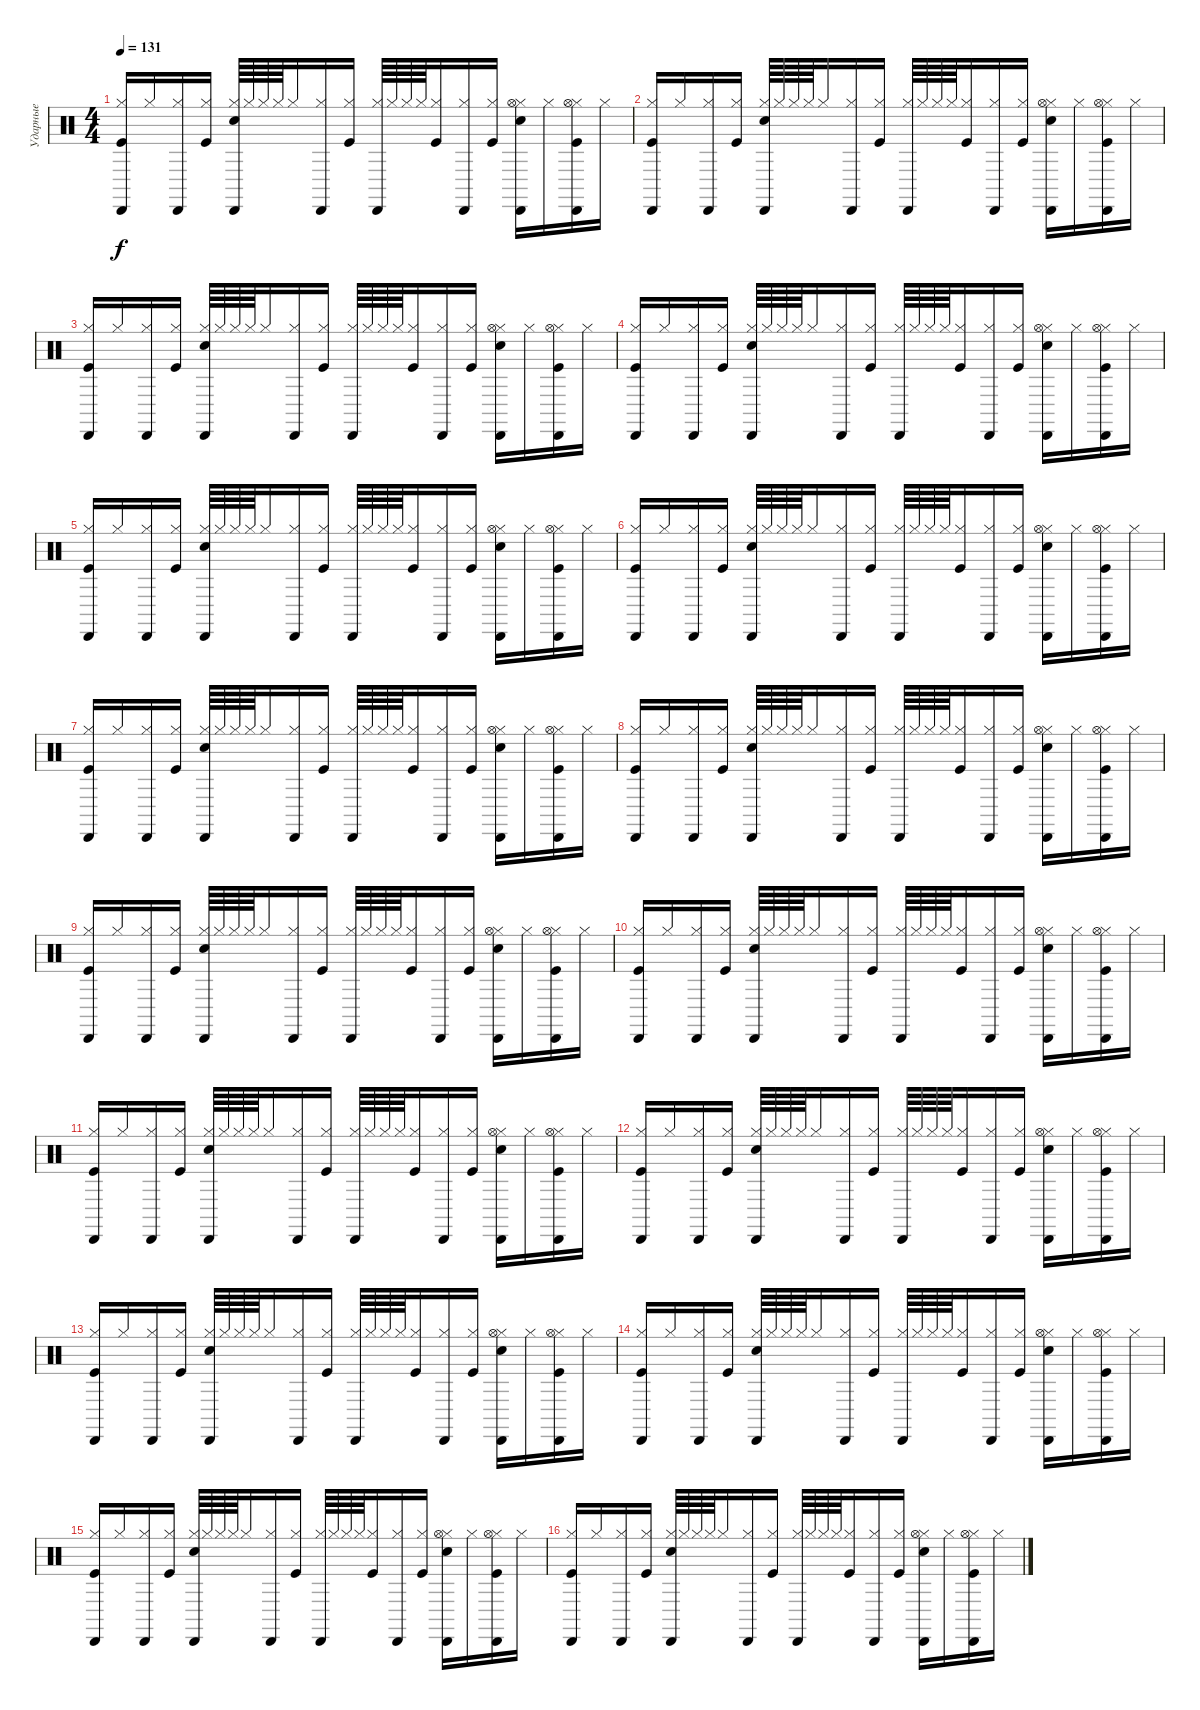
\track ("Ударные" "Ударные") {instrument percussion}
\staff {score}
\articulation defaults
\ts (4 4)
\tempo 131
\clef neutral
\ks c
("Hi-Hat (closed)" "Kick (hit)" "Cabasa (hit)").16{dy f} "Hi-Hat (closed)".16 ("Hi-Hat (closed)" "Cabasa (hit)").16 ("Hi-Hat (closed)" "Kick (hit)").16 ("Hi-Hat (closed)" "Snare (hit) 2" "Cabasa (hit)").64 "Hi-Hat (closed)".64 "Hi-Hat (closed)".64 "Hi-Hat (closed)".64 "Hi-Hat (closed)".16 ("Hi-Hat (closed)" "Cabasa (hit)").16 ("Hi-Hat (closed)" "Kick (hit)").16 ("Hi-Hat (closed)" "Cabasa (hit)").64 "Hi-Hat (closed)".64 "Hi-Hat (closed)".64 "Hi-Hat (closed)".64 ("Hi-Hat (closed)" "Kick (hit)").16 ("Hi-Hat (closed)" "Cabasa (hit)").16 ("Hi-Hat (closed)" "Kick (hit)").16 ("Hi-Hat (closed)" "Hi-Hat (open)" "Snare (hit) 2" "Cabasa (hit)").16 "Hi-Hat (closed)".16 ("Hi-Hat (closed)" "Hi-Hat (open)" "Kick (hit)" "Cabasa (hit)").16 "Hi-Hat (closed)".16 |
("Hi-Hat (closed)" "Kick (hit)" "Cabasa (hit)").16 "Hi-Hat (closed)".16 ("Hi-Hat (closed)" "Cabasa (hit)").16 ("Hi-Hat (closed)" "Kick (hit)").16 ("Hi-Hat (closed)" "Snare (hit) 2" "Cabasa (hit)").64 "Hi-Hat (closed)".64 "Hi-Hat (closed)".64 "Hi-Hat (closed)".64 "Hi-Hat (closed)".16 ("Hi-Hat (closed)" "Cabasa (hit)").16 ("Hi-Hat (closed)" "Kick (hit)").16 ("Hi-Hat (closed)" "Cabasa (hit)").64 "Hi-Hat (closed)".64 "Hi-Hat (closed)".64 "Hi-Hat (closed)".64 ("Hi-Hat (closed)" "Kick (hit)").16 ("Hi-Hat (closed)" "Cabasa (hit)").16 ("Hi-Hat (closed)" "Kick (hit)").16 ("Hi-Hat (closed)" "Hi-Hat (open)" "Snare (hit) 2" "Cabasa (hit)").16 "Hi-Hat (closed)".16 ("Hi-Hat (closed)" "Hi-Hat (open)" "Kick (hit)" "Cabasa (hit)").16 "Hi-Hat (closed)".16 |
("Hi-Hat (closed)" "Kick (hit)" "Cabasa (hit)").16 "Hi-Hat (closed)".16 ("Hi-Hat (closed)" "Cabasa (hit)").16 ("Hi-Hat (closed)" "Kick (hit)").16 ("Hi-Hat (closed)" "Snare (hit) 2" "Cabasa (hit)").64 "Hi-Hat (closed)".64 "Hi-Hat (closed)".64 "Hi-Hat (closed)".64 "Hi-Hat (closed)".16 ("Hi-Hat (closed)" "Cabasa (hit)").16 ("Hi-Hat (closed)" "Kick (hit)").16 ("Hi-Hat (closed)" "Cabasa (hit)").64 "Hi-Hat (closed)".64 "Hi-Hat (closed)".64 "Hi-Hat (closed)".64 ("Hi-Hat (closed)" "Kick (hit)").16 ("Hi-Hat (closed)" "Cabasa (hit)").16 ("Hi-Hat (closed)" "Kick (hit)").16 ("Hi-Hat (closed)" "Hi-Hat (open)" "Snare (hit) 2" "Cabasa (hit)").16 "Hi-Hat (closed)".16 ("Hi-Hat (closed)" "Hi-Hat (open)" "Kick (hit)" "Cabasa (hit)").16 "Hi-Hat (closed)".16 |
("Hi-Hat (closed)" "Kick (hit)" "Cabasa (hit)").16 "Hi-Hat (closed)".16 ("Hi-Hat (closed)" "Cabasa (hit)").16 ("Hi-Hat (closed)" "Kick (hit)").16 ("Hi-Hat (closed)" "Snare (hit) 2" "Cabasa (hit)").64 "Hi-Hat (closed)".64 "Hi-Hat (closed)".64 "Hi-Hat (closed)".64 "Hi-Hat (closed)".16 ("Hi-Hat (closed)" "Cabasa (hit)").16 ("Hi-Hat (closed)" "Kick (hit)").16 ("Hi-Hat (closed)" "Cabasa (hit)").64 "Hi-Hat (closed)".64 "Hi-Hat (closed)".64 "Hi-Hat (closed)".64 ("Hi-Hat (closed)" "Kick (hit)").16 ("Hi-Hat (closed)" "Cabasa (hit)").16 ("Hi-Hat (closed)" "Kick (hit)").16 ("Hi-Hat (closed)" "Hi-Hat (open)" "Snare (hit) 2" "Cabasa (hit)").16 "Hi-Hat (closed)".16 ("Hi-Hat (closed)" "Hi-Hat (open)" "Kick (hit)" "Cabasa (hit)").16 "Hi-Hat (closed)".16 |
("Hi-Hat (closed)" "Kick (hit)" "Cabasa (hit)").16 "Hi-Hat (closed)".16 ("Hi-Hat (closed)" "Cabasa (hit)").16 ("Hi-Hat (closed)" "Kick (hit)").16 ("Hi-Hat (closed)" "Snare (hit) 2" "Cabasa (hit)").64 "Hi-Hat (closed)".64 "Hi-Hat (closed)".64 "Hi-Hat (closed)".64 "Hi-Hat (closed)".16 ("Hi-Hat (closed)" "Cabasa (hit)").16 ("Hi-Hat (closed)" "Kick (hit)").16 ("Hi-Hat (closed)" "Cabasa (hit)").64 "Hi-Hat (closed)".64 "Hi-Hat (closed)".64 "Hi-Hat (closed)".64 ("Hi-Hat (closed)" "Kick (hit)").16 ("Hi-Hat (closed)" "Cabasa (hit)").16 ("Hi-Hat (closed)" "Kick (hit)").16 ("Hi-Hat (closed)" "Hi-Hat (open)" "Snare (hit) 2" "Cabasa (hit)").16 "Hi-Hat (closed)".16 ("Hi-Hat (closed)" "Hi-Hat (open)" "Kick (hit)" "Cabasa (hit)").16 "Hi-Hat (closed)".16 |
("Hi-Hat (closed)" "Kick (hit)" "Cabasa (hit)").16 "Hi-Hat (closed)".16 ("Hi-Hat (closed)" "Cabasa (hit)").16 ("Hi-Hat (closed)" "Kick (hit)").16 ("Hi-Hat (closed)" "Snare (hit) 2" "Cabasa (hit)").64 "Hi-Hat (closed)".64 "Hi-Hat (closed)".64 "Hi-Hat (closed)".64 "Hi-Hat (closed)".16 ("Hi-Hat (closed)" "Cabasa (hit)").16 ("Hi-Hat (closed)" "Kick (hit)").16 ("Hi-Hat (closed)" "Cabasa (hit)").64 "Hi-Hat (closed)".64 "Hi-Hat (closed)".64 "Hi-Hat (closed)".64 ("Hi-Hat (closed)" "Kick (hit)").16 ("Hi-Hat (closed)" "Cabasa (hit)").16 ("Hi-Hat (closed)" "Kick (hit)").16 ("Hi-Hat (closed)" "Hi-Hat (open)" "Snare (hit) 2" "Cabasa (hit)").16 "Hi-Hat (closed)".16 ("Hi-Hat (closed)" "Hi-Hat (open)" "Kick (hit)" "Cabasa (hit)").16 "Hi-Hat (closed)".16 |
("Hi-Hat (closed)" "Kick (hit)" "Cabasa (hit)").16 "Hi-Hat (closed)".16 ("Hi-Hat (closed)" "Cabasa (hit)").16 ("Hi-Hat (closed)" "Kick (hit)").16 ("Hi-Hat (closed)" "Snare (hit) 2" "Cabasa (hit)").64 "Hi-Hat (closed)".64 "Hi-Hat (closed)".64 "Hi-Hat (closed)".64 "Hi-Hat (closed)".16 ("Hi-Hat (closed)" "Cabasa (hit)").16 ("Hi-Hat (closed)" "Kick (hit)").16 ("Hi-Hat (closed)" "Cabasa (hit)").64 "Hi-Hat (closed)".64 "Hi-Hat (closed)".64 "Hi-Hat (closed)".64 ("Hi-Hat (closed)" "Kick (hit)").16 ("Hi-Hat (closed)" "Cabasa (hit)").16 ("Hi-Hat (closed)" "Kick (hit)").16 ("Hi-Hat (closed)" "Hi-Hat (open)" "Snare (hit) 2" "Cabasa (hit)").16 "Hi-Hat (closed)".16 ("Hi-Hat (closed)" "Hi-Hat (open)" "Kick (hit)" "Cabasa (hit)").16 "Hi-Hat (closed)".16 |
("Hi-Hat (closed)" "Kick (hit)" "Cabasa (hit)").16 "Hi-Hat (closed)".16 ("Hi-Hat (closed)" "Cabasa (hit)").16 ("Hi-Hat (closed)" "Kick (hit)").16 ("Hi-Hat (closed)" "Snare (hit) 2" "Cabasa (hit)").64 "Hi-Hat (closed)".64 "Hi-Hat (closed)".64 "Hi-Hat (closed)".64 "Hi-Hat (closed)".16 ("Hi-Hat (closed)" "Cabasa (hit)").16 ("Hi-Hat (closed)" "Kick (hit)").16 ("Hi-Hat (closed)" "Cabasa (hit)").64 "Hi-Hat (closed)".64 "Hi-Hat (closed)".64 "Hi-Hat (closed)".64 ("Hi-Hat (closed)" "Kick (hit)").16 ("Hi-Hat (closed)" "Cabasa (hit)").16 ("Hi-Hat (closed)" "Kick (hit)").16 ("Hi-Hat (closed)" "Hi-Hat (open)" "Snare (hit) 2" "Cabasa (hit)").16 "Hi-Hat (closed)".16 ("Hi-Hat (closed)" "Hi-Hat (open)" "Kick (hit)" "Cabasa (hit)").16 "Hi-Hat (closed)".16 |
("Hi-Hat (closed)" "Kick (hit)" "Cabasa (hit)").16 "Hi-Hat (closed)".16 ("Hi-Hat (closed)" "Cabasa (hit)").16 ("Hi-Hat (closed)" "Kick (hit)").16 ("Hi-Hat (closed)" "Snare (hit) 2" "Cabasa (hit)").64 "Hi-Hat (closed)".64 "Hi-Hat (closed)".64 "Hi-Hat (closed)".64 "Hi-Hat (closed)".16 ("Hi-Hat (closed)" "Cabasa (hit)").16 ("Hi-Hat (closed)" "Kick (hit)").16 ("Hi-Hat (closed)" "Cabasa (hit)").64 "Hi-Hat (closed)".64 "Hi-Hat (closed)".64 "Hi-Hat (closed)".64 ("Hi-Hat (closed)" "Kick (hit)").16 ("Hi-Hat (closed)" "Cabasa (hit)").16 ("Hi-Hat (closed)" "Kick (hit)").16 ("Hi-Hat (closed)" "Hi-Hat (open)" "Snare (hit) 2" "Cabasa (hit)").16 "Hi-Hat (closed)".16 ("Hi-Hat (closed)" "Hi-Hat (open)" "Kick (hit)" "Cabasa (hit)").16 "Hi-Hat (closed)".16 |
("Hi-Hat (closed)" "Kick (hit)" "Cabasa (hit)").16 "Hi-Hat (closed)".16 ("Hi-Hat (closed)" "Cabasa (hit)").16 ("Hi-Hat (closed)" "Kick (hit)").16 ("Hi-Hat (closed)" "Snare (hit) 2" "Cabasa (hit)").64 "Hi-Hat (closed)".64 "Hi-Hat (closed)".64 "Hi-Hat (closed)".64 "Hi-Hat (closed)".16 ("Hi-Hat (closed)" "Cabasa (hit)").16 ("Hi-Hat (closed)" "Kick (hit)").16 ("Hi-Hat (closed)" "Cabasa (hit)").64 "Hi-Hat (closed)".64 "Hi-Hat (closed)".64 "Hi-Hat (closed)".64 ("Hi-Hat (closed)" "Kick (hit)").16 ("Hi-Hat (closed)" "Cabasa (hit)").16 ("Hi-Hat (closed)" "Kick (hit)").16 ("Hi-Hat (closed)" "Hi-Hat (open)" "Snare (hit) 2" "Cabasa (hit)").16 "Hi-Hat (closed)".16 ("Hi-Hat (closed)" "Hi-Hat (open)" "Kick (hit)" "Cabasa (hit)").16 "Hi-Hat (closed)".16 |
("Hi-Hat (closed)" "Kick (hit)" "Cabasa (hit)").16 "Hi-Hat (closed)".16 ("Hi-Hat (closed)" "Cabasa (hit)").16 ("Hi-Hat (closed)" "Kick (hit)").16 ("Hi-Hat (closed)" "Snare (hit) 2" "Cabasa (hit)").64 "Hi-Hat (closed)".64 "Hi-Hat (closed)".64 "Hi-Hat (closed)".64 "Hi-Hat (closed)".16 ("Hi-Hat (closed)" "Cabasa (hit)").16 ("Hi-Hat (closed)" "Kick (hit)").16 ("Hi-Hat (closed)" "Cabasa (hit)").64 "Hi-Hat (closed)".64 "Hi-Hat (closed)".64 "Hi-Hat (closed)".64 ("Hi-Hat (closed)" "Kick (hit)").16 ("Hi-Hat (closed)" "Cabasa (hit)").16 ("Hi-Hat (closed)" "Kick (hit)").16 ("Hi-Hat (closed)" "Hi-Hat (open)" "Snare (hit) 2" "Cabasa (hit)").16 "Hi-Hat (closed)".16 ("Hi-Hat (closed)" "Hi-Hat (open)" "Kick (hit)" "Cabasa (hit)").16 "Hi-Hat (closed)".16 |
("Hi-Hat (closed)" "Kick (hit)" "Cabasa (hit)").16 "Hi-Hat (closed)".16 ("Hi-Hat (closed)" "Cabasa (hit)").16 ("Hi-Hat (closed)" "Kick (hit)").16 ("Hi-Hat (closed)" "Snare (hit) 2" "Cabasa (hit)").64 "Hi-Hat (closed)".64 "Hi-Hat (closed)".64 "Hi-Hat (closed)".64 "Hi-Hat (closed)".16 ("Hi-Hat (closed)" "Cabasa (hit)").16 ("Hi-Hat (closed)" "Kick (hit)").16 ("Hi-Hat (closed)" "Cabasa (hit)").64 "Hi-Hat (closed)".64 "Hi-Hat (closed)".64 "Hi-Hat (closed)".64 ("Hi-Hat (closed)" "Kick (hit)").16 ("Hi-Hat (closed)" "Cabasa (hit)").16 ("Hi-Hat (closed)" "Kick (hit)").16 ("Hi-Hat (closed)" "Hi-Hat (open)" "Snare (hit) 2" "Cabasa (hit)").16 "Hi-Hat (closed)".16 ("Hi-Hat (closed)" "Hi-Hat (open)" "Kick (hit)" "Cabasa (hit)").16 "Hi-Hat (closed)".16 |
("Hi-Hat (closed)" "Kick (hit)" "Cabasa (hit)").16 "Hi-Hat (closed)".16 ("Hi-Hat (closed)" "Cabasa (hit)").16 ("Hi-Hat (closed)" "Kick (hit)").16 ("Hi-Hat (closed)" "Snare (hit) 2" "Cabasa (hit)").64 "Hi-Hat (closed)".64 "Hi-Hat (closed)".64 "Hi-Hat (closed)".64 "Hi-Hat (closed)".16 ("Hi-Hat (closed)" "Cabasa (hit)").16 ("Hi-Hat (closed)" "Kick (hit)").16 ("Hi-Hat (closed)" "Cabasa (hit)").64 "Hi-Hat (closed)".64 "Hi-Hat (closed)".64 "Hi-Hat (closed)".64 ("Hi-Hat (closed)" "Kick (hit)").16 ("Hi-Hat (closed)" "Cabasa (hit)").16 ("Hi-Hat (closed)" "Kick (hit)").16 ("Hi-Hat (closed)" "Hi-Hat (open)" "Snare (hit) 2" "Cabasa (hit)").16 "Hi-Hat (closed)".16 ("Hi-Hat (closed)" "Hi-Hat (open)" "Kick (hit)" "Cabasa (hit)").16 "Hi-Hat (closed)".16 |
("Hi-Hat (closed)" "Kick (hit)" "Cabasa (hit)").16 "Hi-Hat (closed)".16 ("Hi-Hat (closed)" "Cabasa (hit)").16 ("Hi-Hat (closed)" "Kick (hit)").16 ("Hi-Hat (closed)" "Snare (hit) 2" "Cabasa (hit)").64 "Hi-Hat (closed)".64 "Hi-Hat (closed)".64 "Hi-Hat (closed)".64 "Hi-Hat (closed)".16 ("Hi-Hat (closed)" "Cabasa (hit)").16 ("Hi-Hat (closed)" "Kick (hit)").16 ("Hi-Hat (closed)" "Cabasa (hit)").64 "Hi-Hat (closed)".64 "Hi-Hat (closed)".64 "Hi-Hat (closed)".64 ("Hi-Hat (closed)" "Kick (hit)").16 ("Hi-Hat (closed)" "Cabasa (hit)").16 ("Hi-Hat (closed)" "Kick (hit)").16 ("Hi-Hat (closed)" "Hi-Hat (open)" "Snare (hit) 2" "Cabasa (hit)").16 "Hi-Hat (closed)".16 ("Hi-Hat (closed)" "Hi-Hat (open)" "Kick (hit)" "Cabasa (hit)").16 "Hi-Hat (closed)".16 |
("Hi-Hat (closed)" "Kick (hit)" "Cabasa (hit)").16 "Hi-Hat (closed)".16 ("Hi-Hat (closed)" "Cabasa (hit)").16 ("Hi-Hat (closed)" "Kick (hit)").16 ("Hi-Hat (closed)" "Snare (hit) 2" "Cabasa (hit)").64 "Hi-Hat (closed)".64 "Hi-Hat (closed)".64 "Hi-Hat (closed)".64 "Hi-Hat (closed)".16 ("Hi-Hat (closed)" "Cabasa (hit)").16 ("Hi-Hat (closed)" "Kick (hit)").16 ("Hi-Hat (closed)" "Cabasa (hit)").64 "Hi-Hat (closed)".64 "Hi-Hat (closed)".64 "Hi-Hat (closed)".64 ("Hi-Hat (closed)" "Kick (hit)").16 ("Hi-Hat (closed)" "Cabasa (hit)").16 ("Hi-Hat (closed)" "Kick (hit)").16 ("Hi-Hat (closed)" "Hi-Hat (open)" "Snare (hit) 2" "Cabasa (hit)").16 "Hi-Hat (closed)".16 ("Hi-Hat (closed)" "Hi-Hat (open)" "Kick (hit)" "Cabasa (hit)").16 "Hi-Hat (closed)".16 |
("Hi-Hat (closed)" "Kick (hit)" "Cabasa (hit)").16 "Hi-Hat (closed)".16 ("Hi-Hat (closed)" "Cabasa (hit)").16 ("Hi-Hat (closed)" "Kick (hit)").16 ("Hi-Hat (closed)" "Snare (hit) 2" "Cabasa (hit)").64 "Hi-Hat (closed)".64 "Hi-Hat (closed)".64 "Hi-Hat (closed)".64 "Hi-Hat (closed)".16 ("Hi-Hat (closed)" "Cabasa (hit)").16 ("Hi-Hat (closed)" "Kick (hit)").16 ("Hi-Hat (closed)" "Cabasa (hit)").64 "Hi-Hat (closed)".64 "Hi-Hat (closed)".64 "Hi-Hat (closed)".64 ("Hi-Hat (closed)" "Kick (hit)").16 ("Hi-Hat (closed)" "Cabasa (hit)").16 ("Hi-Hat (closed)" "Kick (hit)").16 ("Hi-Hat (closed)" "Hi-Hat (open)" "Snare (hit) 2" "Cabasa (hit)").16 "Hi-Hat (closed)".16 ("Hi-Hat (closed)" "Hi-Hat (open)" "Kick (hit)" "Cabasa (hit)").16 "Hi-Hat (closed)".16
